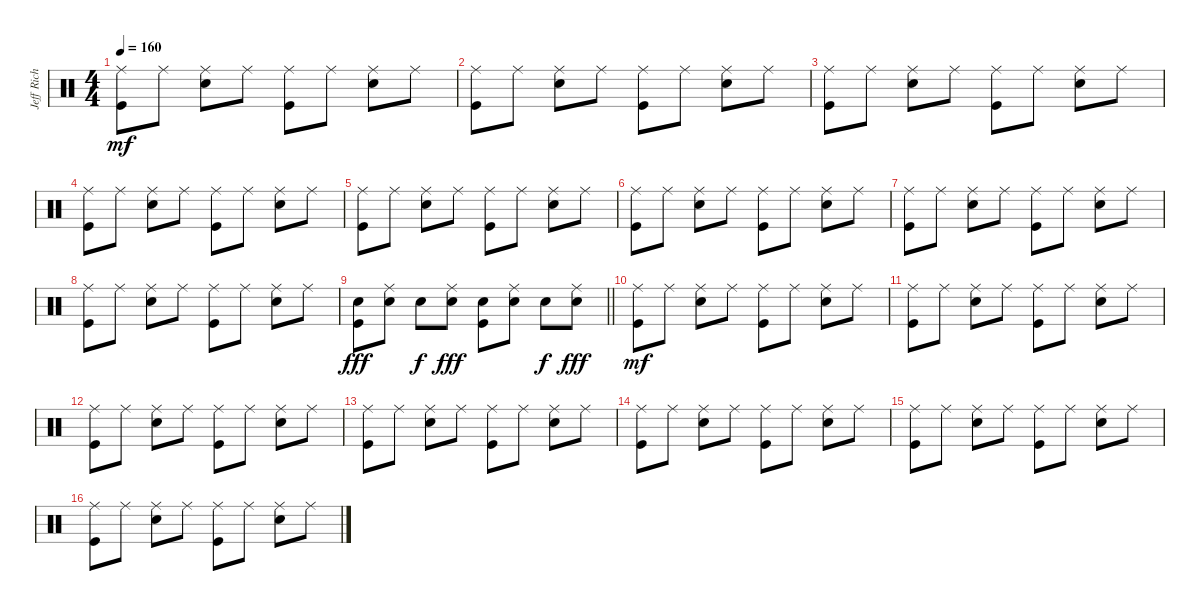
\track ("Jeff Rich (Percussion)" "Jeff Rich ") {instrument percussion}
\staff {score}
\articulation defaults
\ts (4 4)
\tempo 160
\clef neutral
\ks c
("Ride (middle)" "Kick (hit)").8{dy mf} "Ride (middle)".8 ("Ride (middle)" "Snare (hit) 2").8 "Ride (middle)".8 ("Ride (middle)" "Kick (hit)").8 "Ride (middle)".8 ("Ride (middle)" "Snare (hit) 2").8 "Ride (middle)".8 |
("Ride (middle)" "Kick (hit)").8 "Ride (middle)".8 ("Ride (middle)" "Snare (hit) 2").8 "Ride (middle)".8 ("Ride (middle)" "Kick (hit)").8 "Ride (middle)".8 ("Ride (middle)" "Snare (hit) 2").8 "Ride (middle)".8 |
("Ride (middle)" "Kick (hit)").8 "Ride (middle)".8 ("Ride (middle)" "Snare (hit) 2").8 "Ride (middle)".8 ("Ride (middle)" "Kick (hit)").8 "Ride (middle)".8 ("Ride (middle)" "Snare (hit) 2").8 "Ride (middle)".8 |
("Ride (middle)" "Kick (hit)").8 "Ride (middle)".8 ("Ride (middle)" "Snare (hit) 2").8 "Ride (middle)".8 ("Ride (middle)" "Kick (hit)").8 "Ride (middle)".8 ("Ride (middle)" "Snare (hit) 2").8 "Ride (middle)".8 |
("Ride (middle)" "Kick (hit)").8 "Ride (middle)".8 ("Ride (middle)" "Snare (hit) 2").8 "Ride (middle)".8 ("Ride (middle)" "Kick (hit)").8 "Ride (middle)".8 ("Ride (middle)" "Snare (hit) 2").8 "Ride (middle)".8 |
("Ride (middle)" "Kick (hit)").8 "Ride (middle)".8 ("Ride (middle)" "Snare (hit) 2").8 "Ride (middle)".8 ("Ride (middle)" "Kick (hit)").8 "Ride (middle)".8 ("Ride (middle)" "Snare (hit) 2").8 "Ride (middle)".8 |
("Ride (middle)" "Kick (hit)").8 "Ride (middle)".8 ("Ride (middle)" "Snare (hit) 2").8 "Ride (middle)".8 ("Ride (middle)" "Kick (hit)").8 "Ride (middle)".8 ("Ride (middle)" "Snare (hit) 2").8 "Ride (middle)".8 |
("Ride (middle)" "Kick (hit)").8 "Ride (middle)".8 ("Ride (middle)" "Snare (hit) 2").8 "Ride (middle)".8 ("Ride (middle)" "Kick (hit)").8 "Ride (middle)".8 ("Ride (middle)" "Snare (hit) 2").8 "Ride (middle)".8 |
\barLineRight lightlight
("Snare (hit) 2" "Kick (hit)").8{dy fff} ("Ride (middle)" "Snare (hit) 2").8 "Snare (hit) 2".8{dy f} ("Ride (middle)" "Snare (hit) 2").8{dy fff} ("Snare (hit) 2" "Kick (hit)").8 ("Ride (middle)" "Snare (hit) 2").8 "Snare (hit) 2".8{dy f} ("Ride (middle)" "Snare (hit) 2").8{dy fff} |
("Ride (middle)" "Kick (hit)").8{dy mf} "Ride (middle)".8 ("Ride (middle)" "Snare (hit) 2").8 "Ride (middle)".8 ("Ride (middle)" "Kick (hit)").8 "Ride (middle)".8 ("Ride (middle)" "Snare (hit) 2").8 "Ride (middle)".8 |
("Ride (middle)" "Kick (hit)").8 "Ride (middle)".8 ("Ride (middle)" "Snare (hit) 2").8 "Ride (middle)".8 ("Ride (middle)" "Kick (hit)").8 "Ride (middle)".8 ("Ride (middle)" "Snare (hit) 2").8 "Ride (middle)".8 |
("Ride (middle)" "Kick (hit)").8 "Ride (middle)".8 ("Ride (middle)" "Snare (hit) 2").8 "Ride (middle)".8 ("Ride (middle)" "Kick (hit)").8 "Ride (middle)".8 ("Ride (middle)" "Snare (hit) 2").8 "Ride (middle)".8 |
("Ride (middle)" "Kick (hit)").8 "Ride (middle)".8 ("Ride (middle)" "Snare (hit) 2").8 "Ride (middle)".8 ("Ride (middle)" "Kick (hit)").8 "Ride (middle)".8 ("Ride (middle)" "Snare (hit) 2").8 "Ride (middle)".8 |
("Ride (middle)" "Kick (hit)").8 "Ride (middle)".8 ("Ride (middle)" "Snare (hit) 2").8 "Ride (middle)".8 ("Ride (middle)" "Kick (hit)").8 "Ride (middle)".8 ("Ride (middle)" "Snare (hit) 2").8 "Ride (middle)".8 |
("Ride (middle)" "Kick (hit)").8 "Ride (middle)".8 ("Ride (middle)" "Snare (hit) 2").8 "Ride (middle)".8 ("Ride (middle)" "Kick (hit)").8 "Ride (middle)".8 ("Ride (middle)" "Snare (hit) 2").8 "Ride (middle)".8 |
("Ride (middle)" "Kick (hit)").8 "Ride (middle)".8 ("Ride (middle)" "Snare (hit) 2").8 "Ride (middle)".8 ("Ride (middle)" "Kick (hit)").8 "Ride (middle)".8 ("Ride (middle)" "Snare (hit) 2").8 "Ride (middle)".8
